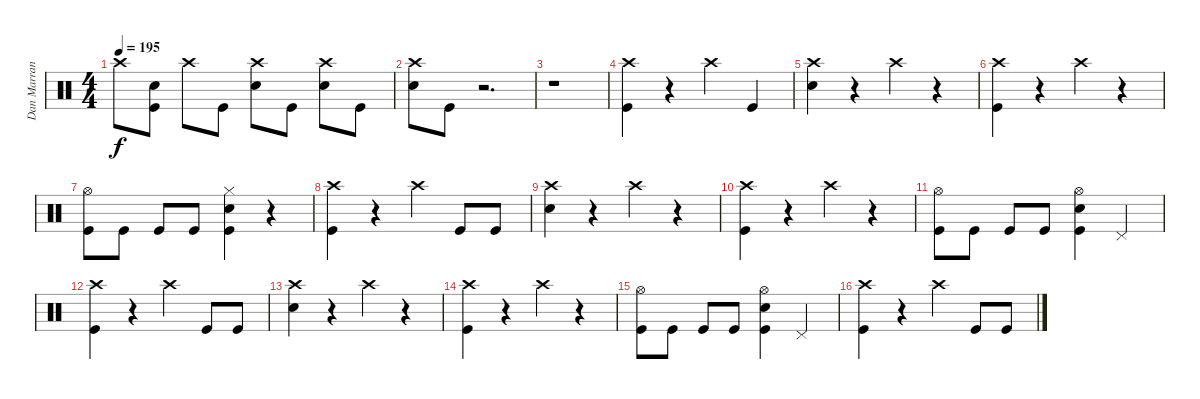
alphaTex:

\track ("Dan Marranca" "Dan Marran") {instrument percussion}
\staff {score}
\articulation defaults
\ts (4 4)
\tempo 195
\clef neutral
\ks c "Crash high (hit)".8{dy f}
("Electric Snare (hit)" "Kick (hit)").8 "Crash high (hit)".8 "Kick (hit)".8 ("Crash high (hit)" "Electric Snare (hit)").8 "Kick (hit)".8 ("Crash high (hit)" "Electric Snare (hit)").8 "Kick (hit)".8 |
("Crash high (hit)" "Electric Snare (hit)").8 "Kick (hit)".8 r.2{d} |
r.1 |
("Crash high (hit)" "Kick (hit)").4 r.4 "Crash high (hit)".4 "Kick (hit)".4 |
("Crash high (hit)" "Electric Snare (hit)").4 r.4 "Crash high (hit)".4 r.4 |
("Crash high (hit)" "Kick (hit)").4 r.4 "Crash high (hit)".4 r.4 |
("Hi-Hat (open)" "Kick (hit)").8 "Kick (hit)".8 "Kick (hit)".8 "Kick (hit)".8 ("Hi-Hat (closed)" "Electric Snare (hit)" "Kick (hit)").4 r.4 |
("Crash high (hit)" "Kick (hit)").4 r.4 "Crash high (hit)".4 "Kick (hit)".8 "Kick (hit)".8 |
("Crash high (hit)" "Electric Snare (hit)").4 r.4 "Crash high (hit)".4 r.4 |
("Crash high (hit)" "Kick (hit)").4 r.4 "Crash high (hit)".4 r.4 |
("Hi-Hat (open)" "Kick (hit)").8 "Kick (hit)".8 "Kick (hit)".8 "Kick (hit)".8 ("Hi-Hat (open)" "Electric Snare (hit)" "Kick (hit)").4 "Pedal Hi-Hat (hit)".4 |
("Crash high (hit)" "Kick (hit)").4 r.4 "Crash high (hit)".4 "Kick (hit)".8 "Kick (hit)".8 |
("Crash high (hit)" "Electric Snare (hit)").4 r.4 "Crash high (hit)".4 r.4 |
("Crash high (hit)" "Kick (hit)").4 r.4 "Crash high (hit)".4 r.4 |
("Hi-Hat (open)" "Kick (hit)").8 "Kick (hit)".8 "Kick (hit)".8 "Kick (hit)".8 ("Hi-Hat (open)" "Electric Snare (hit)" "Kick (hit)").4 "Pedal Hi-Hat (hit)".4 |
("Crash high (hit)" "Kick (hit)").4 r.4 "Crash high (hit)".4 "Kick (hit)".8 "Kick (hit)".8
